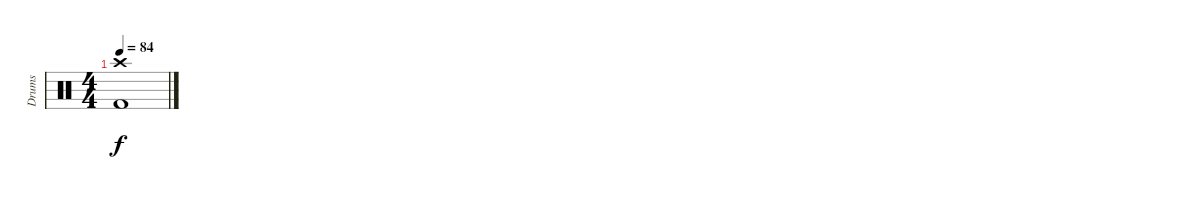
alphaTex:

\track ("Drums" "Drums") {instrument percussion}
\staff {score}
\articulation defaults
\ts (4 4)
\tempo 84
\clef neutral
\ks c
("Crash high (hit)" "Kick (hit) 2").1{dy f}
